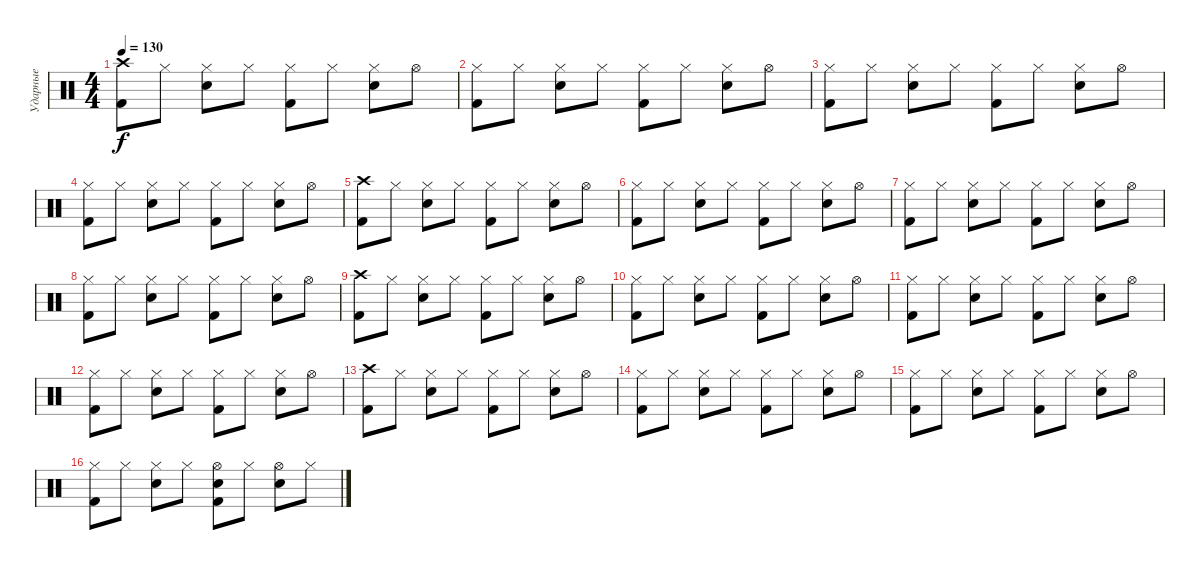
\track ("Ударные" "Ударные") {instrument percussion}
\staff {score}
\articulation defaults
\ts (4 4)
\tempo 130
\clef neutral
\ks c
("Crash high (hit)" "Kick (hit) 2").8{dy f} "Hi-Hat (closed)".8 ("Hi-Hat (closed)" "Electric Snare (hit)").8 "Hi-Hat (closed)".8 ("Hi-Hat (closed)" "Kick (hit) 2").8 "Hi-Hat (closed)".8 ("Hi-Hat (closed)" "Electric Snare (hit)").8 "Hi-Hat (open)".8 |
("Hi-Hat (closed)" "Kick (hit) 2").8 "Hi-Hat (closed)".8 ("Hi-Hat (closed)" "Electric Snare (hit)").8 "Hi-Hat (closed)".8 ("Hi-Hat (closed)" "Kick (hit) 2").8 "Hi-Hat (closed)".8 ("Hi-Hat (closed)" "Electric Snare (hit)").8 "Hi-Hat (open)".8 |
("Hi-Hat (closed)" "Kick (hit) 2").8 "Hi-Hat (closed)".8 ("Hi-Hat (closed)" "Electric Snare (hit)").8 "Hi-Hat (closed)".8 ("Hi-Hat (closed)" "Kick (hit) 2").8 "Hi-Hat (closed)".8 ("Hi-Hat (closed)" "Electric Snare (hit)").8 "Hi-Hat (open)".8 |
("Hi-Hat (closed)" "Kick (hit) 2").8 "Hi-Hat (closed)".8 ("Hi-Hat (closed)" "Electric Snare (hit)").8 "Hi-Hat (closed)".8 ("Hi-Hat (closed)" "Kick (hit) 2").8 "Hi-Hat (closed)".8 ("Hi-Hat (closed)" "Electric Snare (hit)").8 "Hi-Hat (open)".8 |
("Crash high (hit)" "Kick (hit) 2").8 "Hi-Hat (closed)".8 ("Hi-Hat (closed)" "Electric Snare (hit)").8 "Hi-Hat (closed)".8 ("Hi-Hat (closed)" "Kick (hit) 2").8 "Hi-Hat (closed)".8 ("Hi-Hat (closed)" "Electric Snare (hit)").8 "Hi-Hat (open)".8 |
("Hi-Hat (closed)" "Kick (hit) 2").8 "Hi-Hat (closed)".8 ("Hi-Hat (closed)" "Electric Snare (hit)").8 "Hi-Hat (closed)".8 ("Hi-Hat (closed)" "Kick (hit) 2").8 "Hi-Hat (closed)".8 ("Hi-Hat (closed)" "Electric Snare (hit)").8 "Hi-Hat (open)".8 |
("Hi-Hat (closed)" "Kick (hit) 2").8 "Hi-Hat (closed)".8 ("Hi-Hat (closed)" "Electric Snare (hit)").8 "Hi-Hat (closed)".8 ("Hi-Hat (closed)" "Kick (hit) 2").8 "Hi-Hat (closed)".8 ("Hi-Hat (closed)" "Electric Snare (hit)").8 "Hi-Hat (open)".8 |
("Hi-Hat (closed)" "Kick (hit) 2").8 "Hi-Hat (closed)".8 ("Hi-Hat (closed)" "Electric Snare (hit)").8 "Hi-Hat (closed)".8 ("Hi-Hat (closed)" "Kick (hit) 2").8 "Hi-Hat (closed)".8 ("Hi-Hat (closed)" "Electric Snare (hit)").8 "Hi-Hat (open)".8 |
("Crash high (hit)" "Kick (hit) 2").8 "Hi-Hat (closed)".8 ("Hi-Hat (closed)" "Electric Snare (hit)").8 "Hi-Hat (closed)".8 ("Hi-Hat (closed)" "Kick (hit) 2").8 "Hi-Hat (closed)".8 ("Hi-Hat (closed)" "Electric Snare (hit)").8 "Hi-Hat (open)".8 |
("Hi-Hat (closed)" "Kick (hit) 2").8 "Hi-Hat (closed)".8 ("Hi-Hat (closed)" "Electric Snare (hit)").8 "Hi-Hat (closed)".8 ("Hi-Hat (closed)" "Kick (hit) 2").8 "Hi-Hat (closed)".8 ("Hi-Hat (closed)" "Electric Snare (hit)").8 "Hi-Hat (open)".8 |
("Hi-Hat (closed)" "Kick (hit) 2").8 "Hi-Hat (closed)".8 ("Hi-Hat (closed)" "Electric Snare (hit)").8 "Hi-Hat (closed)".8 ("Hi-Hat (closed)" "Kick (hit) 2").8 "Hi-Hat (closed)".8 ("Hi-Hat (closed)" "Electric Snare (hit)").8 "Hi-Hat (open)".8 |
("Hi-Hat (closed)" "Kick (hit) 2").8 "Hi-Hat (closed)".8 ("Hi-Hat (closed)" "Electric Snare (hit)").8 "Hi-Hat (closed)".8 ("Hi-Hat (closed)" "Kick (hit) 2").8 "Hi-Hat (closed)".8 ("Hi-Hat (closed)" "Electric Snare (hit)").8 "Hi-Hat (open)".8 |
("Crash high (hit)" "Kick (hit) 2").8 "Hi-Hat (closed)".8 ("Hi-Hat (closed)" "Electric Snare (hit)").8 "Hi-Hat (closed)".8 ("Hi-Hat (closed)" "Kick (hit) 2").8 "Hi-Hat (closed)".8 ("Hi-Hat (closed)" "Electric Snare (hit)").8 "Hi-Hat (open)".8 |
("Hi-Hat (closed)" "Kick (hit) 2").8 "Hi-Hat (closed)".8 ("Hi-Hat (closed)" "Electric Snare (hit)").8 "Hi-Hat (closed)".8 ("Hi-Hat (closed)" "Kick (hit) 2").8 "Hi-Hat (closed)".8 ("Hi-Hat (closed)" "Electric Snare (hit)").8 "Hi-Hat (open)".8 |
("Hi-Hat (closed)" "Kick (hit) 2").8 "Hi-Hat (closed)".8 ("Hi-Hat (closed)" "Electric Snare (hit)").8 "Hi-Hat (closed)".8 ("Hi-Hat (closed)" "Kick (hit) 2").8 "Hi-Hat (closed)".8 ("Hi-Hat (closed)" "Electric Snare (hit)").8 "Hi-Hat (open)".8 |
("Hi-Hat (closed)" "Kick (hit) 2").8 "Hi-Hat (closed)".8 ("Hi-Hat (closed)" "Electric Snare (hit)").8 "Hi-Hat (closed)".8 ("Hi-Hat (open)" "Electric Snare (hit)" "Kick (hit) 2").8 "Hi-Hat (closed)".8 ("Hi-Hat (open)" "Electric Snare (hit)").8 "Hi-Hat (closed)".8
